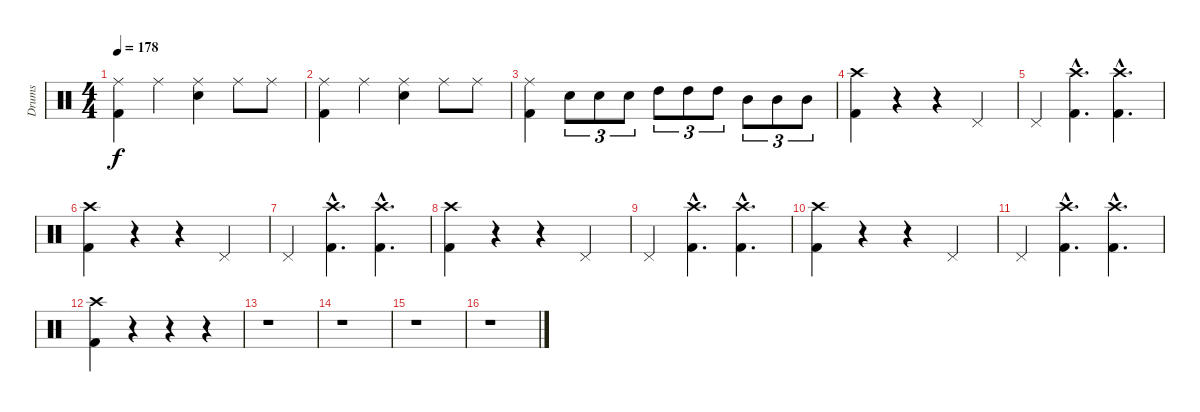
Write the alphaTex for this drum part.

\track ("Drums" "Drums") {instrument percussion}
\staff {score}
\articulation defaults
\ts (4 4)
\tempo 178
\clef neutral
\ks c
("Ride (middle)" "Kick (hit) 2").4{dy f} "Ride (middle)".4 ("Ride (middle)" "Electric Snare (hit)").4 "Ride (middle)".8 "Ride (middle)".8 |
("Ride (middle)" "Kick (hit) 2").4 "Ride (middle)".4 ("Ride (middle)" "Electric Snare (hit)").4 "Ride (middle)".8 "Ride (middle)".8 |
("Ride (middle)" "Kick (hit) 2").4 "Electric Snare (hit)".8{tu (3 2)} "Electric Snare (hit)".8{tu (3 2)} "Electric Snare (hit)".8{tu (3 2)} "High Tom (hit)".8{tu (3 2)} "High Tom (hit)".8{tu (3 2)} "High Tom (hit)".8{tu (3 2)} "Mid Tom (hit)".8{tu (3 2)} "Mid Tom (hit)".8{tu (3 2)} "Mid Tom (hit)".8{tu (3 2)} |
("Crash high (hit)" "Kick (hit) 2").4 r.4 r.4 "Pedal Hi-Hat (hit)".4 |
"Pedal Hi-Hat (hit)".4 ("Crash high (hit)"{hac} "Kick (hit) 2"{hac}).4{d} ("Crash high (hit)"{hac} "Kick (hit) 2"{hac}).4{d} |
("Crash high (hit)" "Kick (hit) 2").4 r.4 r.4 "Pedal Hi-Hat (hit)".4 |
"Pedal Hi-Hat (hit)".4 ("Crash high (hit)"{hac} "Kick (hit) 2"{hac}).4{d} ("Crash high (hit)"{hac} "Kick (hit) 2"{hac}).4{d} |
("Crash high (hit)" "Kick (hit) 2").4 r.4 r.4 "Pedal Hi-Hat (hit)".4 |
"Pedal Hi-Hat (hit)".4 ("Crash high (hit)"{hac} "Kick (hit) 2"{hac}).4{d} ("Crash high (hit)"{hac} "Kick (hit) 2"{hac}).4{d} |
("Crash high (hit)" "Kick (hit) 2").4 r.4 r.4 "Pedal Hi-Hat (hit)".4 |
"Pedal Hi-Hat (hit)".4 ("Crash high (hit)"{hac} "Kick (hit) 2"{hac}).4{d} ("Crash high (hit)"{hac} "Kick (hit) 2"{hac}).4{d} |
("Crash high (hit)" "Kick (hit) 2").4 r.4 r.4 r.4 |
r.1 |
r.1 |
r.1 |
r.1
